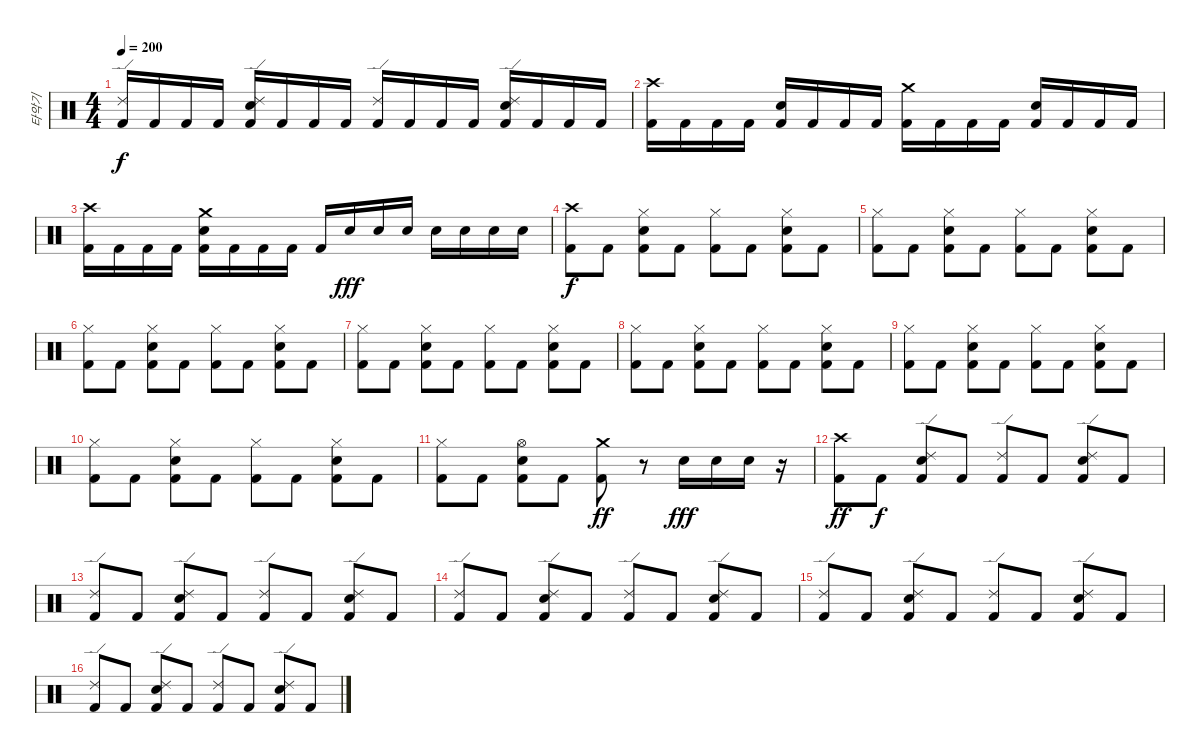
\track ("타악기" "타악기") {instrument percussion}
\staff {score}
\articulation defaults
\ts (4 4)
\tempo 200
\clef neutral
\ks c
("Ride (edge) 2" "Kick (hit) 2").16{dy f} "Kick (hit) 2".16 "Kick (hit) 2".16 "Kick (hit) 2".16 ("Ride (edge) 2" "Snare (hit) 2" "Kick (hit) 2").16 "Kick (hit) 2".16 "Kick (hit) 2".16 "Kick (hit) 2".16 ("Ride (edge) 2" "Kick (hit) 2").16 "Kick (hit) 2".16 "Kick (hit) 2".16 "Kick (hit) 2".16 ("Ride (edge) 2" "Snare (hit) 2" "Kick (hit) 2").16 "Kick (hit) 2".16 "Kick (hit) 2".16 "Kick (hit) 2".16 |
("Crash high (hit)" "Kick (hit) 2").16 "Kick (hit) 2".16 "Kick (hit) 2".16 "Kick (hit) 2".16 ("Snare (hit) 2" "Kick (hit) 2").16 "Kick (hit) 2".16 "Kick (hit) 2".16 "Kick (hit) 2".16 ("Crash medium (hit)" "Kick (hit) 2").16 "Kick (hit) 2".16 "Kick (hit) 2".16 "Kick (hit) 2".16 ("Snare (hit) 2" "Kick (hit) 2").16 "Kick (hit) 2".16 "Kick (hit) 2".16 "Kick (hit) 2".16 |
("Crash high (hit)" "Kick (hit) 2").16 "Kick (hit) 2".16 "Kick (hit) 2".16 "Kick (hit) 2".16 ("Crash medium (hit)" "Snare (hit) 2" "Kick (hit) 2").16 "Kick (hit) 2".16 "Kick (hit) 2".16 "Kick (hit) 2".16 "Kick (hit) 2".16 "Snare (hit) 2".16{dy fff} "Snare (hit) 2".16 "Snare (hit) 2".16 "Snare (hit) 2".16 "Snare (hit) 2".16 "Snare (hit) 2".16 "Snare (hit) 2".16 |
("Crash high (hit)" "Kick (hit) 2").8{dy f} "Kick (hit) 2".8 ("Hi-Hat (closed)" "Snare (hit) 2" "Kick (hit) 2").8 "Kick (hit) 2".8 ("Hi-Hat (closed)" "Kick (hit) 2").8 "Kick (hit) 2".8 ("Hi-Hat (closed)" "Snare (hit) 2" "Kick (hit) 2").8 "Kick (hit) 2".8 |
("Hi-Hat (closed)" "Kick (hit) 2").8 "Kick (hit) 2".8 ("Hi-Hat (closed)" "Snare (hit) 2" "Kick (hit) 2").8 "Kick (hit) 2".8 ("Hi-Hat (closed)" "Kick (hit) 2").8 "Kick (hit) 2".8 ("Hi-Hat (closed)" "Snare (hit) 2" "Kick (hit) 2").8 "Kick (hit) 2".8 |
("Hi-Hat (closed)" "Kick (hit) 2").8 "Kick (hit) 2".8 ("Hi-Hat (closed)" "Snare (hit) 2" "Kick (hit) 2").8 "Kick (hit) 2".8 ("Hi-Hat (closed)" "Kick (hit) 2").8 "Kick (hit) 2".8 ("Hi-Hat (closed)" "Snare (hit) 2" "Kick (hit) 2").8 "Kick (hit) 2".8 |
("Hi-Hat (closed)" "Kick (hit) 2").8 "Kick (hit) 2".8 ("Hi-Hat (closed)" "Snare (hit) 2" "Kick (hit) 2").8 "Kick (hit) 2".8 ("Hi-Hat (closed)" "Kick (hit) 2").8 "Kick (hit) 2".8 ("Hi-Hat (closed)" "Snare (hit) 2" "Kick (hit) 2").8 "Kick (hit) 2".8 |
("Hi-Hat (closed)" "Kick (hit) 2").8 "Kick (hit) 2".8 ("Hi-Hat (closed)" "Snare (hit) 2" "Kick (hit) 2").8 "Kick (hit) 2".8 ("Hi-Hat (closed)" "Kick (hit) 2").8 "Kick (hit) 2".8 ("Hi-Hat (closed)" "Snare (hit) 2" "Kick (hit) 2").8 "Kick (hit) 2".8 |
("Hi-Hat (closed)" "Kick (hit) 2").8 "Kick (hit) 2".8 ("Hi-Hat (closed)" "Snare (hit) 2" "Kick (hit) 2").8 "Kick (hit) 2".8 ("Hi-Hat (closed)" "Kick (hit) 2").8 "Kick (hit) 2".8 ("Hi-Hat (closed)" "Snare (hit) 2" "Kick (hit) 2").8 "Kick (hit) 2".8 |
("Hi-Hat (closed)" "Kick (hit) 2").8 "Kick (hit) 2".8 ("Hi-Hat (closed)" "Snare (hit) 2" "Kick (hit) 2").8 "Kick (hit) 2".8 ("Hi-Hat (closed)" "Kick (hit) 2").8 "Kick (hit) 2".8 ("Hi-Hat (closed)" "Snare (hit) 2" "Kick (hit) 2").8 "Kick (hit) 2".8 |
("Hi-Hat (closed)" "Kick (hit) 2").8 "Kick (hit) 2".8 ("Hi-Hat (open)" "Snare (hit) 2" "Kick (hit) 2").8 "Kick (hit) 2".8 ("Crash medium (hit)" "Kick (hit) 2").8{dy ff} r.8 "Snare (hit) 2".16{dy fff} "Snare (hit) 2".16 "Snare (hit) 2".16 r.16 |
("Crash high (hit)" "Kick (hit) 2").8{dy ff} "Kick (hit) 2".8{dy f} ("Ride (edge) 2" "Snare (hit) 2" "Kick (hit) 2").8 "Kick (hit) 2".8 ("Ride (edge) 2" "Kick (hit) 2").8 "Kick (hit) 2".8 ("Ride (edge) 2" "Snare (hit) 2" "Kick (hit) 2").8 "Kick (hit) 2".8 |
("Ride (edge) 2" "Kick (hit) 2").8 "Kick (hit) 2".8 ("Ride (edge) 2" "Snare (hit) 2" "Kick (hit) 2").8 "Kick (hit) 2".8 ("Ride (edge) 2" "Kick (hit) 2").8 "Kick (hit) 2".8 ("Ride (edge) 2" "Snare (hit) 2" "Kick (hit) 2").8 "Kick (hit) 2".8 |
("Ride (edge) 2" "Kick (hit) 2").8 "Kick (hit) 2".8 ("Ride (edge) 2" "Snare (hit) 2" "Kick (hit) 2").8 "Kick (hit) 2".8 ("Ride (edge) 2" "Kick (hit) 2").8 "Kick (hit) 2".8 ("Ride (edge) 2" "Snare (hit) 2" "Kick (hit) 2").8 "Kick (hit) 2".8 |
("Ride (edge) 2" "Kick (hit) 2").8 "Kick (hit) 2".8 ("Ride (edge) 2" "Snare (hit) 2" "Kick (hit) 2").8 "Kick (hit) 2".8 ("Ride (edge) 2" "Kick (hit) 2").8 "Kick (hit) 2".8 ("Ride (edge) 2" "Snare (hit) 2" "Kick (hit) 2").8 "Kick (hit) 2".8 |
("Ride (edge) 2" "Kick (hit) 2").8 "Kick (hit) 2".8 ("Ride (edge) 2" "Snare (hit) 2" "Kick (hit) 2").8 "Kick (hit) 2".8 ("Ride (edge) 2" "Kick (hit) 2").8 "Kick (hit) 2".8 ("Ride (edge) 2" "Snare (hit) 2" "Kick (hit) 2").8 "Kick (hit) 2".8
